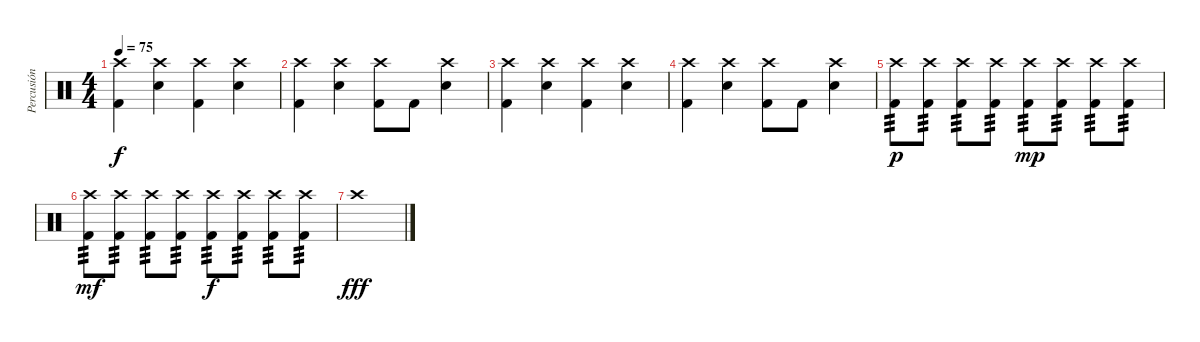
\track ("Percusión" "Percusión") {solo instrument percussion}
\staff {score}
\articulation defaults
\ts (4 4)
\tempo 75
\clef neutral
\ks c
("Kick (hit) 2" "Crash high (hit)").4{dy f} ("Electric Snare (hit)" "Crash high (hit)").4 ("Kick (hit) 2" "Crash high (hit)").4 ("Electric Snare (hit)" "Crash high (hit)").4 |
("Kick (hit) 2" "Crash high (hit)").4 ("Electric Snare (hit)" "Crash high (hit)").4 ("Kick (hit) 2" "Crash high (hit)").8 "Kick (hit) 2".8 ("Electric Snare (hit)" "Crash high (hit)").4 |
("Kick (hit) 2" "Crash high (hit)").4 ("Electric Snare (hit)" "Crash high (hit)").4 ("Kick (hit) 2" "Crash high (hit)").4 ("Electric Snare (hit)" "Crash high (hit)").4 |
("Kick (hit) 2" "Crash high (hit)").4 ("Electric Snare (hit)" "Crash high (hit)").4 ("Kick (hit) 2" "Crash high (hit)").8 "Kick (hit) 2".8 ("Electric Snare (hit)" "Crash high (hit)").4 |
("Kick (hit) 2" "Crash high (hit)").8{tp 3 dy p} ("Kick (hit) 2" "Crash high (hit)").8{tp 3} ("Kick (hit) 2" "Crash high (hit)").8{tp 3} ("Kick (hit) 2" "Crash high (hit)").8{tp 3} ("Kick (hit) 2" "Crash high (hit)").8{tp 3 dy mp} ("Kick (hit) 2" "Crash high (hit)").8{tp 3} ("Kick (hit) 2" "Crash high (hit)").8{tp 3} ("Kick (hit) 2" "Crash high (hit)").8{tp 3} |
("Kick (hit) 2" "Crash high (hit)").8{tp 3 dy mf} ("Kick (hit) 2" "Crash high (hit)").8{tp 3} ("Kick (hit) 2" "Crash high (hit)").8{tp 3} ("Kick (hit) 2" "Crash high (hit)").8{tp 3} ("Kick (hit) 2" "Crash high (hit)").8{tp 3 dy f} ("Kick (hit) 2" "Crash high (hit)").8{tp 3} ("Kick (hit) 2" "Crash high (hit)").8{tp 3} ("Kick (hit) 2" "Crash high (hit)").8{tp 3} |
"Crash high (hit)".1{dy fff}
